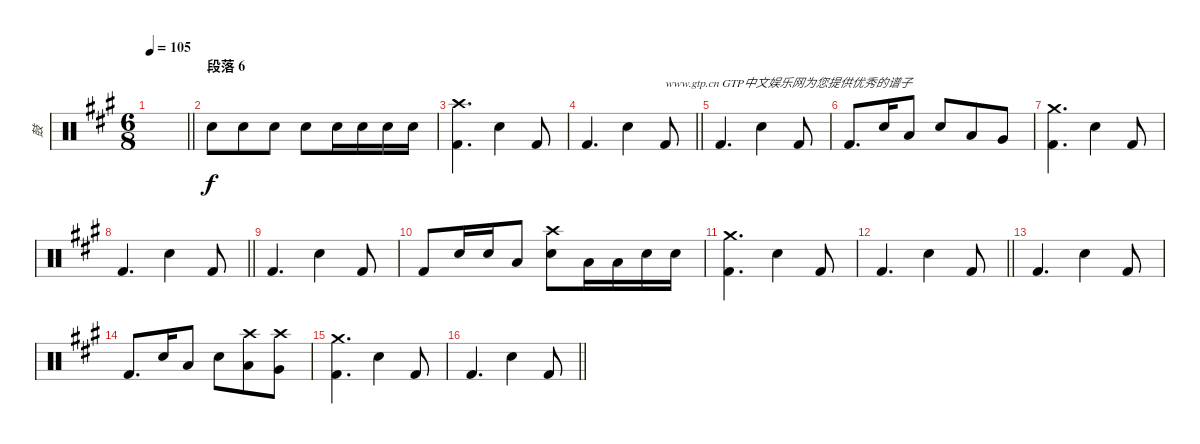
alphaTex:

\track ("鼓" "鼓") {instrument percussion}
\staff {score}
\articulation defaults
\ts (6 8)
\tempo 105
\clef neutral
\barLineRight lightlight
\ks a
|
\section ("" "段落 6")
"Electric Snare (hit)".8 "Electric Snare (hit)".8 "Electric Snare (hit)".8 "Electric Snare (hit)".8 "Electric Snare (hit)".16 "Electric Snare (hit)".16 "Electric Snare (hit)".16 "Electric Snare (hit)".16 |
("Crash high (hit)" "Kick (hit) 2").4{d} "Electric Snare (hit)".4 "Kick (hit) 2".8 |
\barLineRight lightlight "Kick (hit) 2".4{d} "Electric Snare (hit)".4 "Kick (hit) 2".8{txt "www.gtp.cn GTP中文娱乐网为您提供优秀的谱子"}
|
"Kick (hit) 2".4{d} "Electric Snare (hit)".4 "Kick (hit) 2".8 |
"Kick (hit) 2".8{d} "Electric Snare (hit)".16 "Low Tom (hit)".8 "Electric Snare (hit)".8 "Low Tom (hit)".8 "Very Low Tom (hit)".8 |
("Crash medium (hit)" "Kick (hit) 2").4{d} "Electric Snare (hit)".4 "Kick (hit) 2".8 |
\barLineRight lightlight "Kick (hit) 2".4{d} "Electric Snare (hit)".4 "Kick (hit) 2".8
|
"Kick (hit) 2".4{d} "Electric Snare (hit)".4 "Kick (hit) 2".8 |
"Kick (hit) 2".8 "Electric Snare (hit)".16 "Electric Snare (hit)".16 "Low Tom (hit)".8 ("Crash high (hit)" "Electric Snare (hit)").8 "Low Tom (hit)".16 "Low Tom (hit)".16 "Electric Snare (hit)".16 "Electric Snare (hit)".16 |
("Crash medium (hit)" "Kick (hit) 2").4{d} "Electric Snare (hit)".4 "Kick (hit) 2".8 |
\barLineRight lightlight "Kick (hit) 2".4{d} "Electric Snare (hit)".4 "Kick (hit) 2".8
|
"Kick (hit) 2".4{d} "Electric Snare (hit)".4 "Kick (hit) 2".8 |
"Kick (hit) 2".8{d} "Electric Snare (hit)".16 "Low Tom (hit)".8 "Electric Snare (hit)".8 ("Crash high (hit)" "Low Tom (hit)").8 ("Crash high (hit)" "Very Low Tom (hit)").8 |
("Crash medium (hit)" "Kick (hit) 2").4{d} "Electric Snare (hit)".4 "Kick (hit) 2".8 |
\barLineRight lightlight "Kick (hit) 2".4{d} "Electric Snare (hit)".4 "Kick (hit) 2".8
